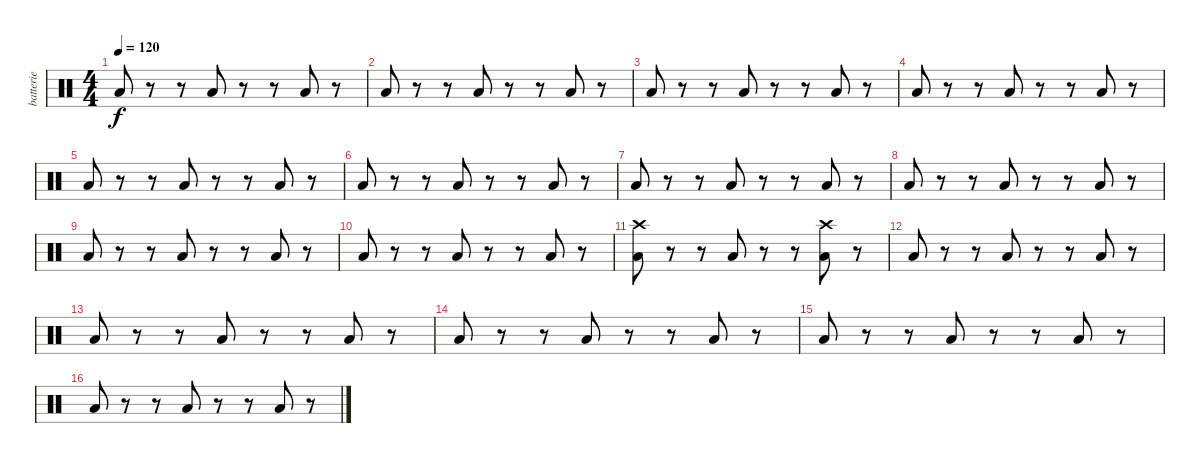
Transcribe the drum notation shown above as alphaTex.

\track ("batterie" "batterie") {instrument percussion}
\staff {score}
\articulation defaults
\ts (4 4)
\tempo 120
\clef neutral
\ks c "Low Floor Tom (hit)".8{dy f}
r.8 r.8 "Low Floor Tom (hit)".8 r.8 r.8 "Low Floor Tom (hit)".8 r.8 |
"Low Floor Tom (hit)".8 r.8 r.8 "Low Floor Tom (hit)".8 r.8 r.8 "Low Floor Tom (hit)".8 r.8 |
"Low Floor Tom (hit)".8 r.8 r.8 "Low Floor Tom (hit)".8 r.8 r.8 "Low Floor Tom (hit)".8 r.8 |
"Low Floor Tom (hit)".8 r.8 r.8 "Low Floor Tom (hit)".8 r.8 r.8 "Low Floor Tom (hit)".8 r.8 |
"Low Floor Tom (hit)".8 r.8 r.8 "Low Floor Tom (hit)".8 r.8 r.8 "Low Floor Tom (hit)".8 r.8 |
"Low Floor Tom (hit)".8 r.8 r.8 "Low Floor Tom (hit)".8 r.8 r.8 "Low Floor Tom (hit)".8 r.8 |
"Low Floor Tom (hit)".8 r.8 r.8 "Low Floor Tom (hit)".8 r.8 r.8 "Low Floor Tom (hit)".8 r.8 |
"Low Floor Tom (hit)".8 r.8 r.8 "Low Floor Tom (hit)".8 r.8 r.8 "Low Floor Tom (hit)".8 r.8 |
"Low Floor Tom (hit)".8 r.8 r.8 "Low Floor Tom (hit)".8 r.8 r.8 "Low Floor Tom (hit)".8 r.8 |
"Low Floor Tom (hit)".8 r.8 r.8 "Low Floor Tom (hit)".8 r.8 r.8 "Low Floor Tom (hit)".8 r.8 |
("Crash high (hit)" "Low Floor Tom (hit)").8 r.8 r.8 "Low Floor Tom (hit)".8 r.8 r.8 ("Crash high (hit)" "Low Floor Tom (hit)").8 r.8 |
"Low Floor Tom (hit)".8 r.8 r.8 "Low Floor Tom (hit)".8 r.8 r.8 "Low Floor Tom (hit)".8 r.8 |
"Low Floor Tom (hit)".8 r.8 r.8 "Low Floor Tom (hit)".8 r.8 r.8 "Low Floor Tom (hit)".8 r.8 |
"Low Floor Tom (hit)".8 r.8 r.8 "Low Floor Tom (hit)".8 r.8 r.8 "Low Floor Tom (hit)".8 r.8 |
"Low Floor Tom (hit)".8 r.8 r.8 "Low Floor Tom (hit)".8 r.8 r.8 "Low Floor Tom (hit)".8 r.8 |
"Low Floor Tom (hit)".8 r.8 r.8 "Low Floor Tom (hit)".8 r.8 r.8 "Low Floor Tom (hit)".8 r.8
